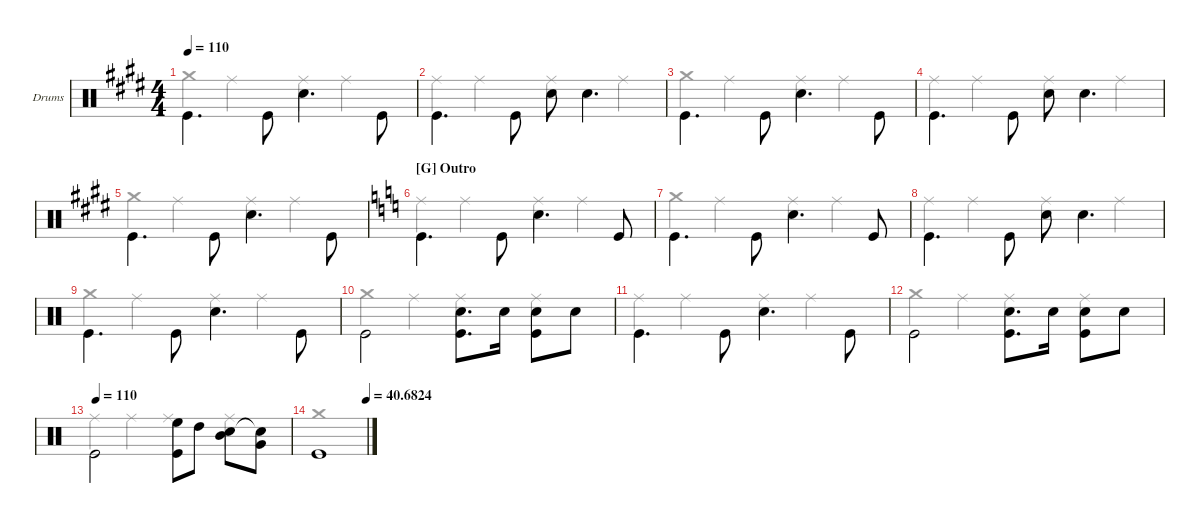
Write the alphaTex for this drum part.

\hideDynamics
\bracketExtendMode groupsimilarinstruments
\multiBarRest
\firstSystemTrackNameOrientation horizontal
\otherSystemsTrackNameOrientation horizontal
\track ("Drumkit" "Drums") {multiBarRest instrument percussion}
\staff {score}
\articulation defaults
\voice
\ts (4 4)
\tempo 110
\clef neutral
\ks e "Kick (hit)".4{d dy f beam invert} "Kick (hit)".8{beam invert} "Snare (hit) 2".4{d beam invert} "Kick (hit)".8{beam invert}
|
"Kick (hit)".4{d beam invert} "Kick (hit)".8{beam invert} "Snare (hit) 2".8{beam invert} "Snare (hit) 2".4{d beam invert} |
"Kick (hit)".4{d beam invert} "Kick (hit)".8{beam invert} "Snare (hit) 2".4{d beam invert} "Kick (hit)".8{beam invert} |
"Kick (hit)".4{d} "Kick (hit)".8{beam invert} "Snare (hit) 2".8 "Snare (hit) 2".4{d beam invert} |
"Kick (hit)".4{d} "Kick (hit)".8{beam invert} "Snare (hit) 2".4{d beam invert} "Kick (hit)".8{beam invert} |
\section ("G" "Outro")
\ks c "Kick (hit)".4{d beam invert} "Kick (hit)".8{beam invert} "Snare (hit) 2".4{d beam invert} "Kick (hit)".8
|
"Kick (hit)".4{d beam invert} "Kick (hit)".8 "Snare (hit) 2".4{d beam invert} "Kick (hit)".8 |
"Kick (hit)".4{d beam invert} "Kick (hit)".8{beam invert} "Snare (hit) 2".8{beam invert} "Snare (hit) 2".4{d beam invert} |
"Kick (hit)".4{d beam invert} "Kick (hit)".8{beam invert} "Snare (hit) 2".4{d beam invert} "Kick (hit)".8{beam invert} |
"Kick (hit)".2{beam invert} ("Kick (hit)" "Snare (hit) 2").8{d beam invert} "Snare (hit) 2".16 ("Kick (hit)" "Snare (hit) 2").8{beam invert} "Snare (hit) 2".8 |
"Kick (hit)".4{d} "Kick (hit)".8{beam invert} "Snare (hit) 2".4{d} "Kick (hit)".8{beam invert} |
"Kick (hit)".2{beam invert} ("Kick (hit)" "Snare (hit) 2").8{d beam invert} "Snare (hit) 2".16 ("Kick (hit)" "Snare (hit) 2").8{beam invert} "Snare (hit) 2".8 |
\tempo (110 0.0125)
"Kick (hit)".2 ("High Floor Tom (hit)" "Kick (hit)").8{beam invert} "High Tom (hit)".8 ("Mid Tom (hit)" "Snare (hit) 2").8{beam invert} ("Very Low Tom (hit)" "Snare (hit) 2"{t}).8 |
\tempo (40.6824 1)
"Kick (hit)".1 |
\voice
\clef neutral
\ottava regular
\simile none
\ks e
|
|
|
|
|
\ks c
|
|
|
|
|
|
|
|
|
\voice
\clef neutral
\ottava regular
\simile none
\ks e
|
|
|
|
|
\ks c
|
|
|
|
|
|
|
|
|
\voice
\clef neutral
\ottava regular
\simile none
\ks e "Crash medium (hit)".4{dy f} "Ride (middle)".4 "Ride (middle)".4 "Ride (middle)".4
|
"Ride (middle)".4 "Ride (middle)".4 "Ride (middle)".4 "Ride (middle)".4 |
"Crash medium (hit)".4 "Ride (middle)".4 "Ride (middle)".4 "Ride (middle)".4 |
"Ride (middle)".4 "Ride (middle)".4 "Ride (middle)".4 "Ride (middle)".4 |
"Crash medium (hit)".4 "Ride (middle)".4 "Ride (middle)".4 "Ride (middle)".4 |
\ks c "Ride (middle)".4 "Ride (middle)".4 "Ride (middle)".4 "Ride (middle)".4
|
"Crash medium (hit)".4 "Ride (middle)".4 "Ride (middle)".4 "Ride (middle)".4 |
"Ride (middle)".4 "Ride (middle)".4 "Ride (middle)".4 "Ride (middle)".4 |
"Crash medium (hit)".4 "Ride (middle)".4 "Ride (middle)".4 "Ride (middle)".4 |
"Crash medium (hit)".4 "Ride (middle)".4 "Ride (middle)".4 "Ride (middle)".4 |
"Ride (middle)".4 "Ride (middle)".4 "Ride (middle)".4 "Ride (middle)".4 |
"Crash medium (hit)".4 "Ride (middle)".4 "Ride (middle)".4 "Ride (middle)".4 |
"Ride (middle)".4 "Ride (middle)".4 "Ride (middle)".4 "Ride (middle)".4 |
"Crash medium (hit)".1 |
